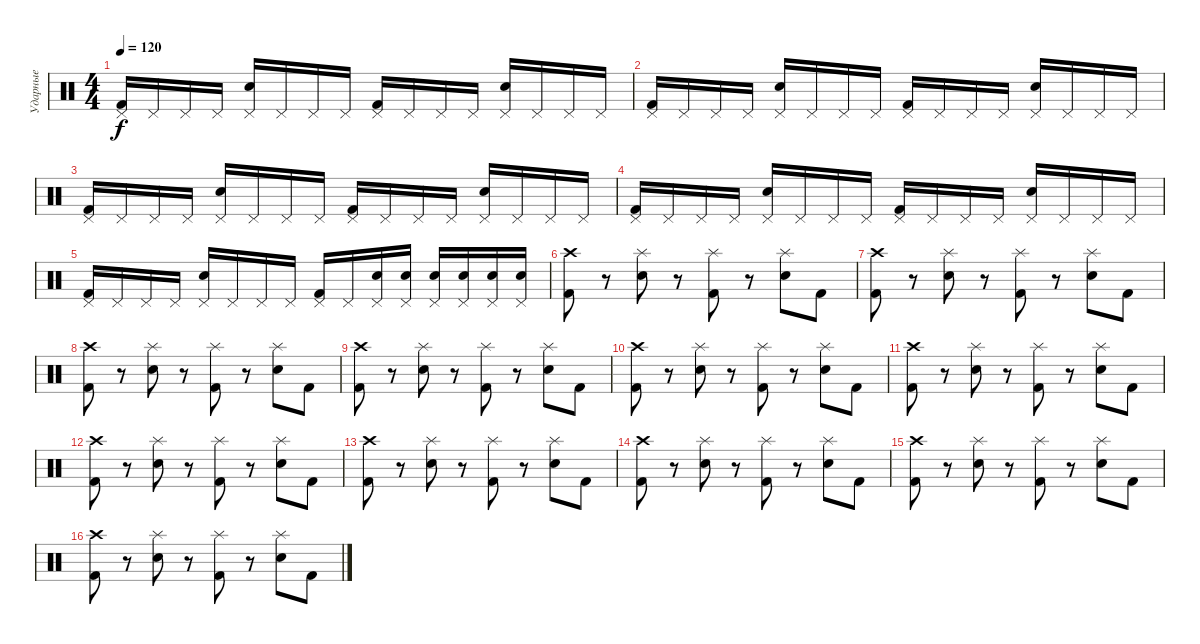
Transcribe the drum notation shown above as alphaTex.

\track ("Ударные" "Ударные") {instrument percussion}
\staff {score}
\articulation defaults
\ts (4 4)
\tempo 120
\clef neutral
\ks c
("Pedal Hi-Hat (hit)" "Kick (hit) 2").16{dy f} "Pedal Hi-Hat (hit)".16 "Pedal Hi-Hat (hit)".16 "Pedal Hi-Hat (hit)".16 ("Pedal Hi-Hat (hit)" "Electric Snare (hit)").16 "Pedal Hi-Hat (hit)".16 "Pedal Hi-Hat (hit)".16 "Pedal Hi-Hat (hit)".16 ("Pedal Hi-Hat (hit)" "Kick (hit) 2").16 "Pedal Hi-Hat (hit)".16 "Pedal Hi-Hat (hit)".16 "Pedal Hi-Hat (hit)".16 ("Pedal Hi-Hat (hit)" "Electric Snare (hit)").16 "Pedal Hi-Hat (hit)".16 "Pedal Hi-Hat (hit)".16 "Pedal Hi-Hat (hit)".16 |
("Pedal Hi-Hat (hit)" "Kick (hit) 2").16 "Pedal Hi-Hat (hit)".16 "Pedal Hi-Hat (hit)".16 "Pedal Hi-Hat (hit)".16 ("Pedal Hi-Hat (hit)" "Electric Snare (hit)").16 "Pedal Hi-Hat (hit)".16 "Pedal Hi-Hat (hit)".16 "Pedal Hi-Hat (hit)".16 ("Pedal Hi-Hat (hit)" "Kick (hit) 2").16 "Pedal Hi-Hat (hit)".16 "Pedal Hi-Hat (hit)".16 "Pedal Hi-Hat (hit)".16 ("Pedal Hi-Hat (hit)" "Electric Snare (hit)").16 "Pedal Hi-Hat (hit)".16 "Pedal Hi-Hat (hit)".16 "Pedal Hi-Hat (hit)".16 |
("Pedal Hi-Hat (hit)" "Kick (hit) 2").16 "Pedal Hi-Hat (hit)".16 "Pedal Hi-Hat (hit)".16 "Pedal Hi-Hat (hit)".16 ("Pedal Hi-Hat (hit)" "Electric Snare (hit)").16 "Pedal Hi-Hat (hit)".16 "Pedal Hi-Hat (hit)".16 "Pedal Hi-Hat (hit)".16 ("Pedal Hi-Hat (hit)" "Kick (hit) 2").16 "Pedal Hi-Hat (hit)".16 "Pedal Hi-Hat (hit)".16 "Pedal Hi-Hat (hit)".16 ("Pedal Hi-Hat (hit)" "Electric Snare (hit)").16 "Pedal Hi-Hat (hit)".16 "Pedal Hi-Hat (hit)".16 "Pedal Hi-Hat (hit)".16 |
("Pedal Hi-Hat (hit)" "Kick (hit) 2").16 "Pedal Hi-Hat (hit)".16 "Pedal Hi-Hat (hit)".16 "Pedal Hi-Hat (hit)".16 ("Pedal Hi-Hat (hit)" "Electric Snare (hit)").16 "Pedal Hi-Hat (hit)".16 "Pedal Hi-Hat (hit)".16 "Pedal Hi-Hat (hit)".16 ("Pedal Hi-Hat (hit)" "Kick (hit) 2").16 "Pedal Hi-Hat (hit)".16 "Pedal Hi-Hat (hit)".16 "Pedal Hi-Hat (hit)".16 ("Pedal Hi-Hat (hit)" "Electric Snare (hit)").16 "Pedal Hi-Hat (hit)".16 "Pedal Hi-Hat (hit)".16 "Pedal Hi-Hat (hit)".16 |
("Pedal Hi-Hat (hit)" "Kick (hit) 2").16 "Pedal Hi-Hat (hit)".16 "Pedal Hi-Hat (hit)".16 "Pedal Hi-Hat (hit)".16 ("Pedal Hi-Hat (hit)" "Electric Snare (hit)").16 "Pedal Hi-Hat (hit)".16 "Pedal Hi-Hat (hit)".16 "Pedal Hi-Hat (hit)".16 ("Pedal Hi-Hat (hit)" "Kick (hit) 2").16 "Pedal Hi-Hat (hit)".16 ("Pedal Hi-Hat (hit)" "Electric Snare (hit)").16 ("Pedal Hi-Hat (hit)" "Electric Snare (hit)").16 ("Pedal Hi-Hat (hit)" "Electric Snare (hit)").16 ("Pedal Hi-Hat (hit)" "Electric Snare (hit)").16 ("Pedal Hi-Hat (hit)" "Electric Snare (hit)").16 ("Pedal Hi-Hat (hit)" "Electric Snare (hit)").16 |
("Crash high (hit)" "Kick (hit) 2").8 r.8 ("Splash (hit)" "Electric Snare (hit)").8 r.8 ("Splash (hit)" "Kick (hit) 2").8 r.8 ("Splash (hit)" "Electric Snare (hit)").8 "Kick (hit) 2".8 |
("Crash high (hit)" "Kick (hit) 2").8 r.8 ("Splash (hit)" "Electric Snare (hit)").8 r.8 ("Splash (hit)" "Kick (hit) 2").8 r.8 ("Splash (hit)" "Electric Snare (hit)").8 "Kick (hit) 2".8 |
("Crash high (hit)" "Kick (hit) 2").8 r.8 ("Splash (hit)" "Electric Snare (hit)").8 r.8 ("Splash (hit)" "Kick (hit) 2").8 r.8 ("Splash (hit)" "Electric Snare (hit)").8 "Kick (hit) 2".8 |
("Crash high (hit)" "Kick (hit) 2").8 r.8 ("Splash (hit)" "Electric Snare (hit)").8 r.8 ("Splash (hit)" "Kick (hit) 2").8 r.8 ("Splash (hit)" "Electric Snare (hit)").8 "Kick (hit) 2".8 |
("Crash high (hit)" "Kick (hit) 2").8 r.8 ("Splash (hit)" "Electric Snare (hit)").8 r.8 ("Splash (hit)" "Kick (hit) 2").8 r.8 ("Splash (hit)" "Electric Snare (hit)").8 "Kick (hit) 2".8 |
("Crash high (hit)" "Kick (hit) 2").8 r.8 ("Splash (hit)" "Electric Snare (hit)").8 r.8 ("Splash (hit)" "Kick (hit) 2").8 r.8 ("Splash (hit)" "Electric Snare (hit)").8 "Kick (hit) 2".8 |
("Crash high (hit)" "Kick (hit) 2").8 r.8 ("Splash (hit)" "Electric Snare (hit)").8 r.8 ("Splash (hit)" "Kick (hit) 2").8 r.8 ("Splash (hit)" "Electric Snare (hit)").8 "Kick (hit) 2".8 |
("Crash high (hit)" "Kick (hit) 2").8 r.8 ("Splash (hit)" "Electric Snare (hit)").8 r.8 ("Splash (hit)" "Kick (hit) 2").8 r.8 ("Splash (hit)" "Electric Snare (hit)").8 "Kick (hit) 2".8 |
("Crash high (hit)" "Kick (hit) 2").8 r.8 ("Splash (hit)" "Electric Snare (hit)").8 r.8 ("Splash (hit)" "Kick (hit) 2").8 r.8 ("Splash (hit)" "Electric Snare (hit)").8 "Kick (hit) 2".8 |
("Crash high (hit)" "Kick (hit) 2").8 r.8 ("Splash (hit)" "Electric Snare (hit)").8 r.8 ("Splash (hit)" "Kick (hit) 2").8 r.8 ("Splash (hit)" "Electric Snare (hit)").8 "Kick (hit) 2".8 |
("Crash high (hit)" "Kick (hit) 2").8 r.8 ("Splash (hit)" "Electric Snare (hit)").8 r.8 ("Splash (hit)" "Kick (hit) 2").8 r.8 ("Splash (hit)" "Electric Snare (hit)").8 "Kick (hit) 2".8
